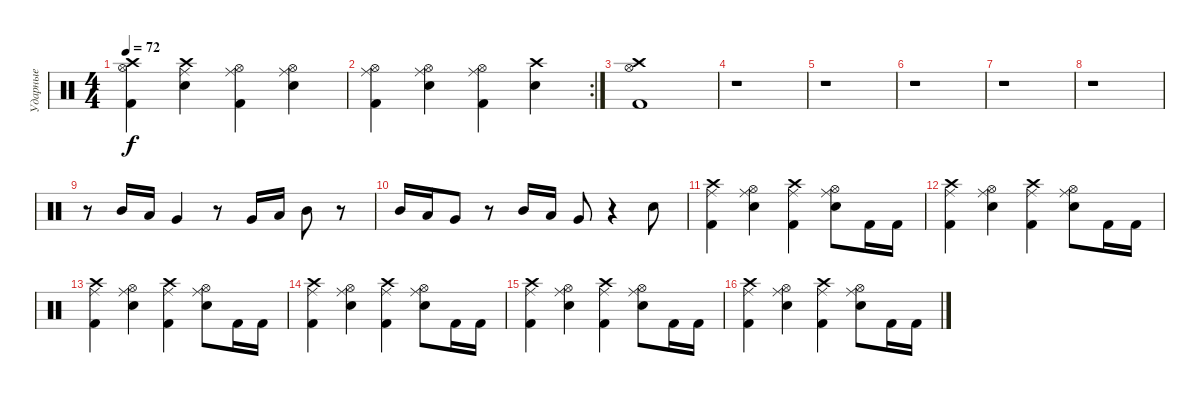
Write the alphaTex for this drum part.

\track ("Ударные" "Ударные") {instrument percussion}
\staff {score}
\articulation defaults
\ts (4 4)
\tempo 72
\clef neutral
\ks c
("Crash high (hit)" "Hi-Hat (open)" "Kick (hit) 2").4{dy f} ("Crash high (hit)" "Ride (middle)" "Snare (hit) 2").4 ("Hi-Hat (open)" "Ride (middle)" "Kick (hit) 2").4 ("Hi-Hat (open)" "Ride (middle)" "Snare (hit) 2").4 |
\rc 2
("Hi-Hat (open)" "Ride (middle)" "Kick (hit) 2").4 ("Hi-Hat (open)" "Ride (middle)" "Snare (hit) 2").4 ("Hi-Hat (open)" "Ride (middle)" "Kick (hit) 2").4 ("Crash high (hit)" "Snare (hit) 2").4 |
("Crash high (hit)" "Hi-Hat (open)" "Kick (hit) 2").1 |
r.1 |
r.1 |
r.1 |
r.1 |
r.1 |
r.8 "Mid Tom (hit)".16 "Low Tom (hit)".16 "Very Low Tom (hit)".4 r.8 "Very Low Tom (hit)".16 "Low Tom (hit)".16 "Mid Tom (hit)".8 r.8 |
"Mid Tom (hit)".16 "Low Tom (hit)".16 "Very Low Tom (hit)".8 r.8 "Mid Tom (hit)".16 "Low Tom (hit)".16 "Very Low Tom (hit)".8 r.4 "Snare (hit) 2".8 |
("Ride (middle)" "Crash high (hit)" "Kick (hit) 2").4 ("Ride (middle)" "Hi-Hat (open)" "Snare (hit) 2").4 ("Ride (middle)" "Crash high (hit)" "Kick (hit) 2").4 ("Ride (middle)" "Hi-Hat (open)" "Snare (hit) 2").8 "Kick (hit) 2".16 "Kick (hit) 2".16 |
("Ride (middle)" "Crash high (hit)" "Kick (hit) 2").4 ("Ride (middle)" "Hi-Hat (open)" "Snare (hit) 2").4 ("Ride (middle)" "Crash high (hit)" "Kick (hit) 2").4 ("Ride (middle)" "Hi-Hat (open)" "Snare (hit) 2").8 "Kick (hit) 2".16 "Kick (hit) 2".16 |
("Ride (middle)" "Crash high (hit)" "Kick (hit) 2").4 ("Ride (middle)" "Hi-Hat (open)" "Snare (hit) 2").4 ("Ride (middle)" "Crash high (hit)" "Kick (hit) 2").4 ("Ride (middle)" "Hi-Hat (open)" "Snare (hit) 2").8 "Kick (hit) 2".16 "Kick (hit) 2".16 |
("Ride (middle)" "Crash high (hit)" "Kick (hit) 2").4 ("Ride (middle)" "Hi-Hat (open)" "Snare (hit) 2").4 ("Ride (middle)" "Crash high (hit)" "Kick (hit) 2").4 ("Ride (middle)" "Hi-Hat (open)" "Snare (hit) 2").8 "Kick (hit) 2".16 "Kick (hit) 2".16 |
("Ride (middle)" "Crash high (hit)" "Kick (hit) 2").4 ("Ride (middle)" "Hi-Hat (open)" "Snare (hit) 2").4 ("Ride (middle)" "Crash high (hit)" "Kick (hit) 2").4 ("Ride (middle)" "Hi-Hat (open)" "Snare (hit) 2").8 "Kick (hit) 2".16 "Kick (hit) 2".16 |
("Ride (middle)" "Crash high (hit)" "Kick (hit) 2").4 ("Ride (middle)" "Hi-Hat (open)" "Snare (hit) 2").4 ("Ride (middle)" "Crash high (hit)" "Kick (hit) 2").4 ("Ride (middle)" "Hi-Hat (open)" "Snare (hit) 2").8 "Kick (hit) 2".16 "Kick (hit) 2".16
